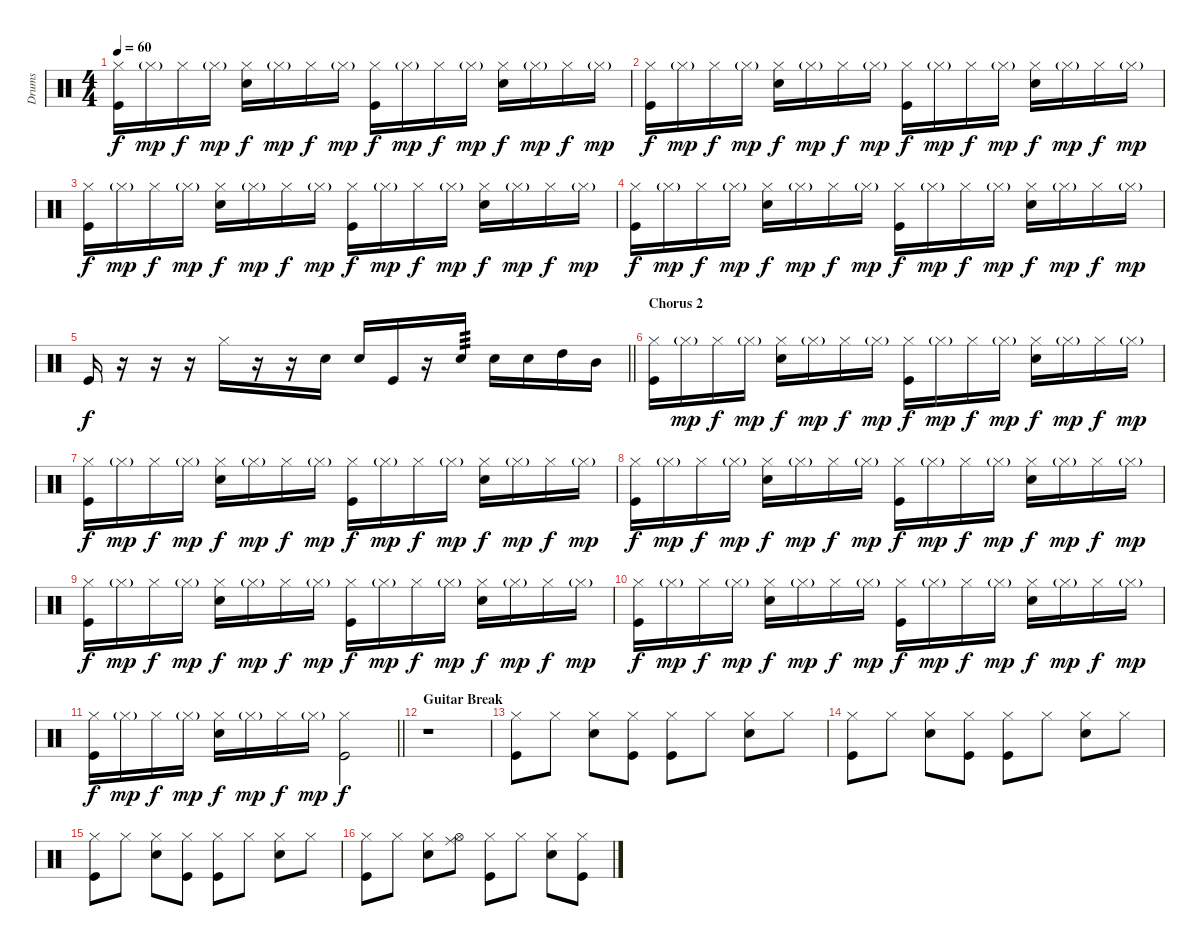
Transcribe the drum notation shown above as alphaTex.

\track ("Drums" "Drums") {instrument percussion}
\staff {score}
\articulation defaults
\ts (4 4)
\tempo 60
\clef neutral
\ks c
("Hi-Hat (closed)" "Kick (hit)").16{dy f} "Hi-Hat (closed)"{g}.16{dy mp} "Hi-Hat (closed)".16{dy f} "Hi-Hat (closed)"{g}.16{dy mp} ("Hi-Hat (closed)" "Snare (hit) 2").16{dy f} "Hi-Hat (closed)"{g}.16{dy mp} "Hi-Hat (closed)".16{dy f} "Hi-Hat (closed)"{g}.16{dy mp} ("Hi-Hat (closed)" "Kick (hit)").16{dy f} "Hi-Hat (closed)"{g}.16{dy mp} "Hi-Hat (closed)".16{dy f} "Hi-Hat (closed)"{g}.16{dy mp} ("Hi-Hat (closed)" "Snare (hit) 2").16{dy f} "Hi-Hat (closed)"{g}.16{dy mp} "Hi-Hat (closed)".16{dy f} "Hi-Hat (closed)"{g}.16{dy mp} |
("Hi-Hat (closed)" "Kick (hit)").16{dy f} "Hi-Hat (closed)"{g}.16{dy mp} "Hi-Hat (closed)".16{dy f} "Hi-Hat (closed)"{g}.16{dy mp} ("Hi-Hat (closed)" "Snare (hit) 2").16{dy f} "Hi-Hat (closed)"{g}.16{dy mp} "Hi-Hat (closed)".16{dy f} "Hi-Hat (closed)"{g}.16{dy mp} ("Hi-Hat (closed)" "Kick (hit)").16{dy f} "Hi-Hat (closed)"{g}.16{dy mp} "Hi-Hat (closed)".16{dy f} "Hi-Hat (closed)"{g}.16{dy mp} ("Hi-Hat (closed)" "Snare (hit) 2").16{dy f} "Hi-Hat (closed)"{g}.16{dy mp} "Hi-Hat (closed)".16{dy f} "Hi-Hat (closed)"{g}.16{dy mp} |
("Hi-Hat (closed)" "Kick (hit)").16{dy f} "Hi-Hat (closed)"{g}.16{dy mp} "Hi-Hat (closed)".16{dy f} "Hi-Hat (closed)"{g}.16{dy mp} ("Hi-Hat (closed)" "Snare (hit) 2").16{dy f} "Hi-Hat (closed)"{g}.16{dy mp} "Hi-Hat (closed)".16{dy f} "Hi-Hat (closed)"{g}.16{dy mp} ("Hi-Hat (closed)" "Kick (hit)").16{dy f} "Hi-Hat (closed)"{g}.16{dy mp} "Hi-Hat (closed)".16{dy f} "Hi-Hat (closed)"{g}.16{dy mp} ("Hi-Hat (closed)" "Snare (hit) 2").16{dy f} "Hi-Hat (closed)"{g}.16{dy mp} "Hi-Hat (closed)".16{dy f} "Hi-Hat (closed)"{g}.16{dy mp} |
("Hi-Hat (closed)" "Kick (hit)").16{dy f} "Hi-Hat (closed)"{g}.16{dy mp} "Hi-Hat (closed)".16{dy f} "Hi-Hat (closed)"{g}.16{dy mp} ("Hi-Hat (closed)" "Snare (hit) 2").16{dy f} "Hi-Hat (closed)"{g}.16{dy mp} "Hi-Hat (closed)".16{dy f} "Hi-Hat (closed)"{g}.16{dy mp} ("Hi-Hat (closed)" "Kick (hit)").16{dy f} "Hi-Hat (closed)"{g}.16{dy mp} "Hi-Hat (closed)".16{dy f} "Hi-Hat (closed)"{g}.16{dy mp} ("Hi-Hat (closed)" "Snare (hit) 2").16{dy f} "Hi-Hat (closed)"{g}.16{dy mp} "Hi-Hat (closed)".16{dy f} "Hi-Hat (closed)"{g}.16{dy mp} |
\barLineRight lightlight "Kick (hit)".16{dy f}
r.16 r.16 r.16 "Hi-Hat (closed)".16 r.16 r.16 "Snare (hit) 2".16 "Snare (hit) 2".16 "Kick (hit)".16 r.16 "Snare (hit) 2".16{tp 3} "Snare (hit) 2".16 "Snare (hit) 2".16 "High Tom (hit)".16 "Mid Tom (hit)".16 |
\section ("" "Chorus 2")
("Hi-Hat (closed)" "Kick (hit)").16 "Hi-Hat (closed)"{g}.16{dy mp} "Hi-Hat (closed)".16{dy f} "Hi-Hat (closed)"{g}.16{dy mp} ("Hi-Hat (closed)" "Snare (hit) 2").16{dy f} "Hi-Hat (closed)"{g}.16{dy mp} "Hi-Hat (closed)".16{dy f} "Hi-Hat (closed)"{g}.16{dy mp} ("Hi-Hat (closed)" "Kick (hit)").16{dy f} "Hi-Hat (closed)"{g}.16{dy mp} "Hi-Hat (closed)".16{dy f} "Hi-Hat (closed)"{g}.16{dy mp} ("Hi-Hat (closed)" "Snare (hit) 2").16{dy f} "Hi-Hat (closed)"{g}.16{dy mp} "Hi-Hat (closed)".16{dy f} "Hi-Hat (closed)"{g}.16{dy mp} |
("Hi-Hat (closed)" "Kick (hit)").16{dy f} "Hi-Hat (closed)"{g}.16{dy mp} "Hi-Hat (closed)".16{dy f} "Hi-Hat (closed)"{g}.16{dy mp} ("Hi-Hat (closed)" "Snare (hit) 2").16{dy f} "Hi-Hat (closed)"{g}.16{dy mp} "Hi-Hat (closed)".16{dy f} "Hi-Hat (closed)"{g}.16{dy mp} ("Hi-Hat (closed)" "Kick (hit)").16{dy f} "Hi-Hat (closed)"{g}.16{dy mp} "Hi-Hat (closed)".16{dy f} "Hi-Hat (closed)"{g}.16{dy mp} ("Hi-Hat (closed)" "Snare (hit) 2").16{dy f} "Hi-Hat (closed)"{g}.16{dy mp} "Hi-Hat (closed)".16{dy f} "Hi-Hat (closed)"{g}.16{dy mp} |
("Hi-Hat (closed)" "Kick (hit)").16{dy f} "Hi-Hat (closed)"{g}.16{dy mp} "Hi-Hat (closed)".16{dy f} "Hi-Hat (closed)"{g}.16{dy mp} ("Hi-Hat (closed)" "Snare (hit) 2").16{dy f} "Hi-Hat (closed)"{g}.16{dy mp} "Hi-Hat (closed)".16{dy f} "Hi-Hat (closed)"{g}.16{dy mp} ("Hi-Hat (closed)" "Kick (hit)").16{dy f} "Hi-Hat (closed)"{g}.16{dy mp} "Hi-Hat (closed)".16{dy f} "Hi-Hat (closed)"{g}.16{dy mp} ("Hi-Hat (closed)" "Snare (hit) 2").16{dy f} "Hi-Hat (closed)"{g}.16{dy mp} "Hi-Hat (closed)".16{dy f} "Hi-Hat (closed)"{g}.16{dy mp} |
("Hi-Hat (closed)" "Kick (hit)").16{dy f} "Hi-Hat (closed)"{g}.16{dy mp} "Hi-Hat (closed)".16{dy f} "Hi-Hat (closed)"{g}.16{dy mp} ("Hi-Hat (closed)" "Snare (hit) 2").16{dy f} "Hi-Hat (closed)"{g}.16{dy mp} "Hi-Hat (closed)".16{dy f} "Hi-Hat (closed)"{g}.16{dy mp} ("Hi-Hat (closed)" "Kick (hit)").16{dy f} "Hi-Hat (closed)"{g}.16{dy mp} "Hi-Hat (closed)".16{dy f} "Hi-Hat (closed)"{g}.16{dy mp} ("Hi-Hat (closed)" "Snare (hit) 2").16{dy f} "Hi-Hat (closed)"{g}.16{dy mp} "Hi-Hat (closed)".16{dy f} "Hi-Hat (closed)"{g}.16{dy mp} |
("Hi-Hat (closed)" "Kick (hit)").16{dy f} "Hi-Hat (closed)"{g}.16{dy mp} "Hi-Hat (closed)".16{dy f} "Hi-Hat (closed)"{g}.16{dy mp} ("Hi-Hat (closed)" "Snare (hit) 2").16{dy f} "Hi-Hat (closed)"{g}.16{dy mp} "Hi-Hat (closed)".16{dy f} "Hi-Hat (closed)"{g}.16{dy mp} ("Hi-Hat (closed)" "Kick (hit)").16{dy f} "Hi-Hat (closed)"{g}.16{dy mp} "Hi-Hat (closed)".16{dy f} "Hi-Hat (closed)"{g}.16{dy mp} ("Hi-Hat (closed)" "Snare (hit) 2").16{dy f} "Hi-Hat (closed)"{g}.16{dy mp} "Hi-Hat (closed)".16{dy f} "Hi-Hat (closed)"{g}.16{dy mp} |
\barLineRight lightlight
("Hi-Hat (closed)" "Kick (hit)").16{dy f} "Hi-Hat (closed)"{g}.16{dy mp} "Hi-Hat (closed)".16{dy f} "Hi-Hat (closed)"{g}.16{dy mp} ("Hi-Hat (closed)" "Snare (hit) 2").16{dy f} "Hi-Hat (closed)"{g}.16{dy mp} "Hi-Hat (closed)".16{dy f} "Hi-Hat (closed)"{g}.16{dy mp} ("Hi-Hat (closed)" "Kick (hit)").2{dy f} |
\section ("" "Guitar Break")
r.1 |
("Hi-Hat (closed)" "Kick (hit)").8 "Hi-Hat (closed)".8 ("Hi-Hat (closed)" "Snare (hit) 2").8 ("Hi-Hat (closed)" "Kick (hit)").8 ("Hi-Hat (closed)" "Kick (hit)").8 "Hi-Hat (closed)".8 ("Hi-Hat (closed)" "Snare (hit) 2").8 "Hi-Hat (closed)".8 |
("Hi-Hat (closed)" "Kick (hit)").8 "Hi-Hat (closed)".8 ("Hi-Hat (closed)" "Snare (hit) 2").8 ("Hi-Hat (closed)" "Kick (hit)").8 ("Hi-Hat (closed)" "Kick (hit)").8 "Hi-Hat (closed)".8 ("Hi-Hat (closed)" "Snare (hit) 2").8 "Hi-Hat (closed)".8 |
("Hi-Hat (closed)" "Kick (hit)").8 "Hi-Hat (closed)".8 ("Hi-Hat (closed)" "Snare (hit) 2").8 ("Hi-Hat (closed)" "Kick (hit)").8 ("Hi-Hat (closed)" "Kick (hit)").8 "Hi-Hat (closed)".8 ("Hi-Hat (closed)" "Snare (hit) 2").8 "Hi-Hat (closed)".8 |
("Hi-Hat (closed)" "Kick (hit)").8 "Hi-Hat (closed)".8 ("Hi-Hat (closed)" "Snare (hit) 2").8 ("Ride (middle)" "Hi-Hat (open)").8 ("Hi-Hat (closed)" "Kick (hit)").8 "Hi-Hat (closed)".8 ("Hi-Hat (closed)" "Snare (hit) 2").8 ("Hi-Hat (closed)" "Kick (hit)").8
